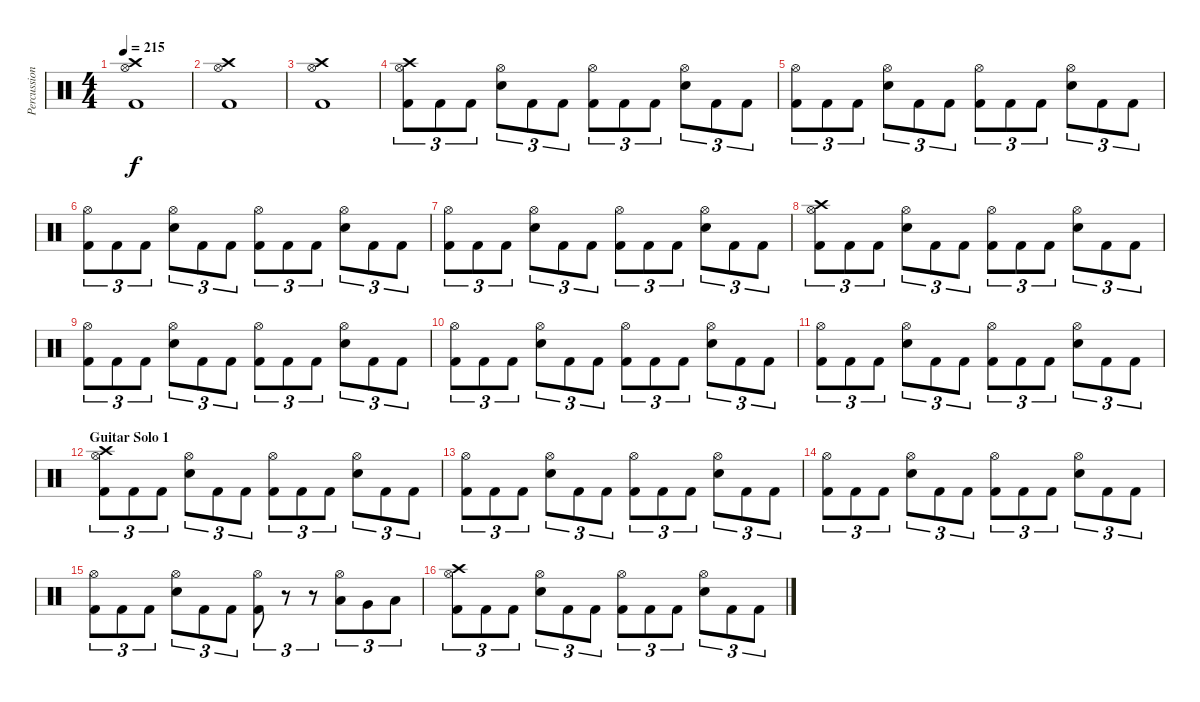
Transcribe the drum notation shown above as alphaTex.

\track ("Percussions" "Percussion") {instrument percussion}
\staff {score}
\articulation defaults
\ts (4 4)
\tempo 215
\clef neutral
\ks c
("Crash high (hit)" "Hi-Hat (open)" "Kick (hit) 2").1{dy f} |
("Crash high (hit)" "Hi-Hat (open)" "Kick (hit) 2").1 |
("Crash high (hit)" "Hi-Hat (open)" "Kick (hit) 2").1 |
("Crash high (hit)" "Hi-Hat (open)" "Kick (hit) 2").8{tu (3 2)} "Kick (hit) 2".8{tu (3 2)} "Kick (hit) 2".8{tu (3 2)} ("Hi-Hat (open)" "Electric Snare (hit)").8{tu (3 2)} "Kick (hit) 2".8{tu (3 2)} "Kick (hit) 2".8{tu (3 2)} ("Hi-Hat (open)" "Kick (hit) 2").8{tu (3 2)} "Kick (hit) 2".8{tu (3 2)} "Kick (hit) 2".8{tu (3 2)} ("Hi-Hat (open)" "Electric Snare (hit)").8{tu (3 2)} "Kick (hit) 2".8{tu (3 2)} "Kick (hit) 2".8{tu (3 2)} |
("Hi-Hat (open)" "Kick (hit) 2").8{tu (3 2)} "Kick (hit) 2".8{tu (3 2)} "Kick (hit) 2".8{tu (3 2)} ("Hi-Hat (open)" "Electric Snare (hit)").8{tu (3 2)} "Kick (hit) 2".8{tu (3 2)} "Kick (hit) 2".8{tu (3 2)} ("Hi-Hat (open)" "Kick (hit) 2").8{tu (3 2)} "Kick (hit) 2".8{tu (3 2)} "Kick (hit) 2".8{tu (3 2)} ("Hi-Hat (open)" "Electric Snare (hit)").8{tu (3 2)} "Kick (hit) 2".8{tu (3 2)} "Kick (hit) 2".8{tu (3 2)} |
("Hi-Hat (open)" "Kick (hit) 2").8{tu (3 2)} "Kick (hit) 2".8{tu (3 2)} "Kick (hit) 2".8{tu (3 2)} ("Hi-Hat (open)" "Electric Snare (hit)").8{tu (3 2)} "Kick (hit) 2".8{tu (3 2)} "Kick (hit) 2".8{tu (3 2)} ("Hi-Hat (open)" "Kick (hit) 2").8{tu (3 2)} "Kick (hit) 2".8{tu (3 2)} "Kick (hit) 2".8{tu (3 2)} ("Hi-Hat (open)" "Electric Snare (hit)").8{tu (3 2)} "Kick (hit) 2".8{tu (3 2)} "Kick (hit) 2".8{tu (3 2)} |
("Hi-Hat (open)" "Kick (hit) 2").8{tu (3 2)} "Kick (hit) 2".8{tu (3 2)} "Kick (hit) 2".8{tu (3 2)} ("Hi-Hat (open)" "Electric Snare (hit)").8{tu (3 2)} "Kick (hit) 2".8{tu (3 2)} "Kick (hit) 2".8{tu (3 2)} ("Hi-Hat (open)" "Kick (hit) 2").8{tu (3 2)} "Kick (hit) 2".8{tu (3 2)} "Kick (hit) 2".8{tu (3 2)} ("Hi-Hat (open)" "Electric Snare (hit)").8{tu (3 2)} "Kick (hit) 2".8{tu (3 2)} "Kick (hit) 2".8{tu (3 2)} |
("Crash high (hit)" "Hi-Hat (open)" "Kick (hit) 2").8{tu (3 2)} "Kick (hit) 2".8{tu (3 2)} "Kick (hit) 2".8{tu (3 2)} ("Hi-Hat (open)" "Electric Snare (hit)").8{tu (3 2)} "Kick (hit) 2".8{tu (3 2)} "Kick (hit) 2".8{tu (3 2)} ("Hi-Hat (open)" "Kick (hit) 2").8{tu (3 2)} "Kick (hit) 2".8{tu (3 2)} "Kick (hit) 2".8{tu (3 2)} ("Hi-Hat (open)" "Electric Snare (hit)").8{tu (3 2)} "Kick (hit) 2".8{tu (3 2)} "Kick (hit) 2".8{tu (3 2)} |
("Hi-Hat (open)" "Kick (hit) 2").8{tu (3 2)} "Kick (hit) 2".8{tu (3 2)} "Kick (hit) 2".8{tu (3 2)} ("Hi-Hat (open)" "Electric Snare (hit)").8{tu (3 2)} "Kick (hit) 2".8{tu (3 2)} "Kick (hit) 2".8{tu (3 2)} ("Hi-Hat (open)" "Kick (hit) 2").8{tu (3 2)} "Kick (hit) 2".8{tu (3 2)} "Kick (hit) 2".8{tu (3 2)} ("Hi-Hat (open)" "Electric Snare (hit)").8{tu (3 2)} "Kick (hit) 2".8{tu (3 2)} "Kick (hit) 2".8{tu (3 2)} |
("Hi-Hat (open)" "Kick (hit) 2").8{tu (3 2)} "Kick (hit) 2".8{tu (3 2)} "Kick (hit) 2".8{tu (3 2)} ("Hi-Hat (open)" "Electric Snare (hit)").8{tu (3 2)} "Kick (hit) 2".8{tu (3 2)} "Kick (hit) 2".8{tu (3 2)} ("Hi-Hat (open)" "Kick (hit) 2").8{tu (3 2)} "Kick (hit) 2".8{tu (3 2)} "Kick (hit) 2".8{tu (3 2)} ("Hi-Hat (open)" "Electric Snare (hit)").8{tu (3 2)} "Kick (hit) 2".8{tu (3 2)} "Kick (hit) 2".8{tu (3 2)} |
("Hi-Hat (open)" "Kick (hit) 2").8{tu (3 2)} "Kick (hit) 2".8{tu (3 2)} "Kick (hit) 2".8{tu (3 2)} ("Hi-Hat (open)" "Electric Snare (hit)").8{tu (3 2)} "Kick (hit) 2".8{tu (3 2)} "Kick (hit) 2".8{tu (3 2)} ("Hi-Hat (open)" "Kick (hit) 2").8{tu (3 2)} "Kick (hit) 2".8{tu (3 2)} "Kick (hit) 2".8{tu (3 2)} ("Hi-Hat (open)" "Electric Snare (hit)").8{tu (3 2)} "Kick (hit) 2".8{tu (3 2)} "Kick (hit) 2".8{tu (3 2)} |
\section ("" "Guitar Solo 1")
("Crash high (hit)" "Hi-Hat (open)" "Kick (hit) 2").8{tu (3 2)} "Kick (hit) 2".8{tu (3 2)} "Kick (hit) 2".8{tu (3 2)} ("Hi-Hat (open)" "Electric Snare (hit)").8{tu (3 2)} "Kick (hit) 2".8{tu (3 2)} "Kick (hit) 2".8{tu (3 2)} ("Hi-Hat (open)" "Kick (hit) 2").8{tu (3 2)} "Kick (hit) 2".8{tu (3 2)} "Kick (hit) 2".8{tu (3 2)} ("Hi-Hat (open)" "Electric Snare (hit)").8{tu (3 2)} "Kick (hit) 2".8{tu (3 2)} "Kick (hit) 2".8{tu (3 2)} |
("Hi-Hat (open)" "Kick (hit) 2").8{tu (3 2)} "Kick (hit) 2".8{tu (3 2)} "Kick (hit) 2".8{tu (3 2)} ("Hi-Hat (open)" "Electric Snare (hit)").8{tu (3 2)} "Kick (hit) 2".8{tu (3 2)} "Kick (hit) 2".8{tu (3 2)} ("Hi-Hat (open)" "Kick (hit) 2").8{tu (3 2)} "Kick (hit) 2".8{tu (3 2)} "Kick (hit) 2".8{tu (3 2)} ("Hi-Hat (open)" "Electric Snare (hit)").8{tu (3 2)} "Kick (hit) 2".8{tu (3 2)} "Kick (hit) 2".8{tu (3 2)} |
("Hi-Hat (open)" "Kick (hit) 2").8{tu (3 2)} "Kick (hit) 2".8{tu (3 2)} "Kick (hit) 2".8{tu (3 2)} ("Hi-Hat (open)" "Electric Snare (hit)").8{tu (3 2)} "Kick (hit) 2".8{tu (3 2)} "Kick (hit) 2".8{tu (3 2)} ("Hi-Hat (open)" "Kick (hit) 2").8{tu (3 2)} "Kick (hit) 2".8{tu (3 2)} "Kick (hit) 2".8{tu (3 2)} ("Hi-Hat (open)" "Electric Snare (hit)").8{tu (3 2)} "Kick (hit) 2".8{tu (3 2)} "Kick (hit) 2".8{tu (3 2)} |
("Hi-Hat (open)" "Kick (hit) 2").8{tu (3 2)} "Kick (hit) 2".8{tu (3 2)} "Kick (hit) 2".8{tu (3 2)} ("Hi-Hat (open)" "Electric Snare (hit)").8{tu (3 2)} "Kick (hit) 2".8{tu (3 2)} "Kick (hit) 2".8{tu (3 2)} ("Hi-Hat (open)" "Kick (hit) 2").8{tu (3 2)} r.8{tu (3 2)} r.8{tu (3 2)} ("Hi-Hat (open)" "Low Tom (hit)").8{tu (3 2)} "Very Low Tom (hit)".8{tu (3 2)} "Low Floor Tom (hit)".8{tu (3 2)} |
("Crash high (hit)" "Hi-Hat (open)" "Kick (hit) 2").8{tu (3 2)} "Kick (hit) 2".8{tu (3 2)} "Kick (hit) 2".8{tu (3 2)} ("Hi-Hat (open)" "Electric Snare (hit)").8{tu (3 2)} "Kick (hit) 2".8{tu (3 2)} "Kick (hit) 2".8{tu (3 2)} ("Hi-Hat (open)" "Kick (hit) 2").8{tu (3 2)} "Kick (hit) 2".8{tu (3 2)} "Kick (hit) 2".8{tu (3 2)} ("Hi-Hat (open)" "Electric Snare (hit)").8{tu (3 2)} "Kick (hit) 2".8{tu (3 2)} "Kick (hit) 2".8{tu (3 2)}
